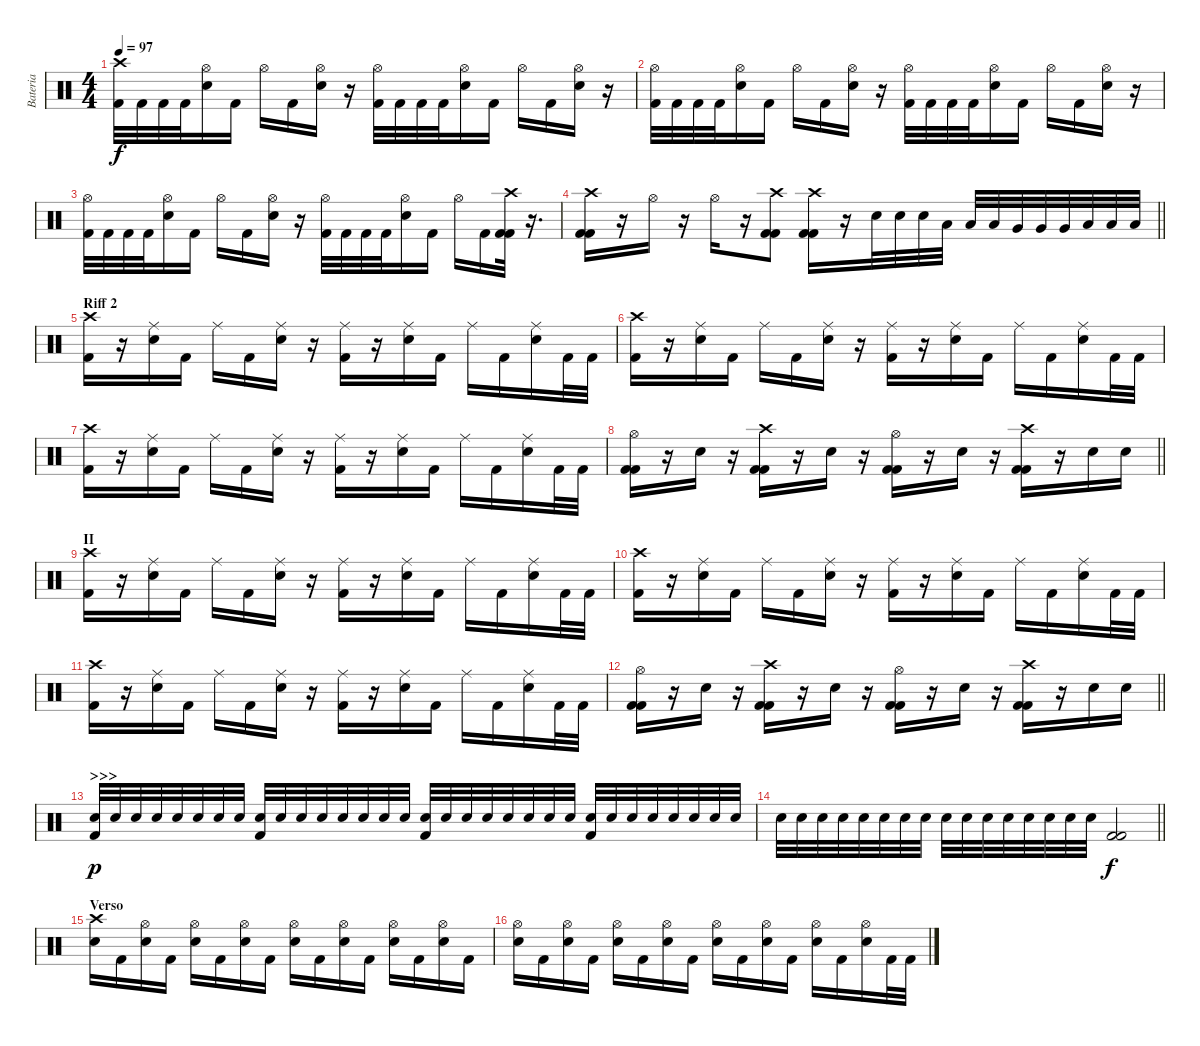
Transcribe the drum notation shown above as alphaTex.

\track ("Bateria" "Bateria") {instrument percussion}
\staff {score}
\articulation defaults
\ts (4 4)
\tempo 97
\clef neutral
\ks c
("Crash high (hit)" "Kick (hit) 2").32{dy f} "Kick (hit) 2".32 "Kick (hit) 2".32 "Kick (hit) 2".32 ("Hi-Hat (open)" "Electric Snare (hit)").16 "Kick (hit) 2".16 "Hi-Hat (open)".16 "Kick (hit) 2".16 ("Hi-Hat (open)" "Electric Snare (hit)").16 r.16 ("Hi-Hat (open)" "Kick (hit) 2").32 "Kick (hit) 2".32 "Kick (hit) 2".32 "Kick (hit) 2".32 ("Hi-Hat (open)" "Electric Snare (hit)").16 "Kick (hit) 2".16 "Hi-Hat (open)".16 "Kick (hit) 2".16 ("Hi-Hat (open)" "Electric Snare (hit)").16 r.16 |
("Hi-Hat (open)" "Kick (hit) 2").32 "Kick (hit) 2".32 "Kick (hit) 2".32 "Kick (hit) 2".32 ("Hi-Hat (open)" "Electric Snare (hit)").16 "Kick (hit) 2".16 "Hi-Hat (open)".16 "Kick (hit) 2".16 ("Hi-Hat (open)" "Electric Snare (hit)").16 r.16 ("Hi-Hat (open)" "Kick (hit) 2").32 "Kick (hit) 2".32 "Kick (hit) 2".32 "Kick (hit) 2".32 ("Hi-Hat (open)" "Electric Snare (hit)").16 "Kick (hit) 2".16 "Hi-Hat (open)".16 "Kick (hit) 2".16 ("Hi-Hat (open)" "Electric Snare (hit)").16 r.16 |
("Hi-Hat (open)" "Kick (hit) 2").32 "Kick (hit) 2".32 "Kick (hit) 2".32 "Kick (hit) 2".32 ("Hi-Hat (open)" "Electric Snare (hit)").16 "Kick (hit) 2".16 "Hi-Hat (open)".16 "Kick (hit) 2".16 ("Hi-Hat (open)" "Electric Snare (hit)").16 r.16 ("Hi-Hat (open)" "Kick (hit) 2").32 "Kick (hit) 2".32 "Kick (hit) 2".32 "Kick (hit) 2".32 ("Hi-Hat (open)" "Electric Snare (hit)").16 "Kick (hit) 2".16 "Hi-Hat (open)".16 "Kick (hit) 2".16 ("Crash high (hit)" "Kick (hit) 2" "Kick (hit) 2").32 r.16{d} |
\barLineRight lightlight
("Crash high (hit)" "Kick (hit) 2" "Kick (hit) 2").16 r.16 "Hi-Hat (open)".16 r.16 "Hi-Hat (open)".16 r.16 ("Crash high (hit)" "Kick (hit) 2" "Kick (hit) 2").8 ("Crash high (hit)" "Kick (hit) 2" "Kick (hit) 2").16 r.16 "Electric Snare (hit)".32 "Electric Snare (hit)".32 "Electric Snare (hit)".32 "Low Tom (hit)".32 "Low Tom (hit)".32 "Low Tom (hit)".32 "Very Low Tom (hit)".32 "Very Low Tom (hit)".32 "Very Low Tom (hit)".32 "Low Floor Tom (hit)".32 "Low Floor Tom (hit)".32 "Low Floor Tom (hit)".32 |
\section ("" "Riff 2")
("Crash high (hit)" "Kick (hit) 2").16 r.16 ("Ride (middle)" "Electric Snare (hit)").16 "Kick (hit) 2".16 "Ride (middle)".16 "Kick (hit) 2".16 ("Ride (middle)" "Electric Snare (hit)").16 r.16 ("Ride (middle)" "Kick (hit) 2").16 r.16 ("Ride (middle)" "Electric Snare (hit)").16 "Kick (hit) 2".16 "Ride (middle)".16 "Kick (hit) 2".16 ("Ride (middle)" "Electric Snare (hit)").16 "Kick (hit) 2".32 "Kick (hit) 2".32 |
("Crash high (hit)" "Kick (hit) 2").16 r.16 ("Ride (middle)" "Electric Snare (hit)").16 "Kick (hit) 2".16 "Ride (middle)".16 "Kick (hit) 2".16 ("Ride (middle)" "Electric Snare (hit)").16 r.16 ("Ride (middle)" "Kick (hit) 2").16 r.16 ("Ride (middle)" "Electric Snare (hit)").16 "Kick (hit) 2".16 "Ride (middle)".16 "Kick (hit) 2".16 ("Ride (middle)" "Electric Snare (hit)").16 "Kick (hit) 2".32 "Kick (hit) 2".32 |
("Crash high (hit)" "Kick (hit) 2").16 r.16 ("Ride (middle)" "Electric Snare (hit)").16 "Kick (hit) 2".16 "Ride (middle)".16 "Kick (hit) 2".16 ("Ride (middle)" "Electric Snare (hit)").16 r.16 ("Ride (middle)" "Kick (hit) 2").16 r.16 ("Ride (middle)" "Electric Snare (hit)").16 "Kick (hit) 2".16 "Ride (middle)".16 "Kick (hit) 2".16 ("Ride (middle)" "Electric Snare (hit)").16 "Kick (hit) 2".32 "Kick (hit) 2".32 |
\barLineRight lightlight
("Hi-Hat (open)" "Kick (hit) 2" "Kick (hit) 2").16 r.16 "Electric Snare (hit)".16 r.16 ("Crash high (hit)" "Kick (hit) 2" "Kick (hit) 2").16 r.16 "Electric Snare (hit)".16 r.16 ("Hi-Hat (open)" "Kick (hit) 2" "Kick (hit) 2").16 r.16 "Electric Snare (hit)".16 r.16 ("Crash high (hit)" "Kick (hit) 2" "Kick (hit) 2").16 r.16 "Electric Snare (hit)".16 "Electric Snare (hit)".16 |
\section ("" "II")
("Crash high (hit)" "Kick (hit) 2").16 r.16 ("Ride (middle)" "Electric Snare (hit)").16 "Kick (hit) 2".16 "Ride (middle)".16 "Kick (hit) 2".16 ("Ride (middle)" "Electric Snare (hit)").16 r.16 ("Ride (middle)" "Kick (hit) 2").16 r.16 ("Ride (middle)" "Electric Snare (hit)").16 "Kick (hit) 2".16 "Ride (middle)".16 "Kick (hit) 2".16 ("Ride (middle)" "Electric Snare (hit)").16 "Kick (hit) 2".32 "Kick (hit) 2".32 |
("Crash high (hit)" "Kick (hit) 2").16 r.16 ("Ride (middle)" "Electric Snare (hit)").16 "Kick (hit) 2".16 "Ride (middle)".16 "Kick (hit) 2".16 ("Ride (middle)" "Electric Snare (hit)").16 r.16 ("Ride (middle)" "Kick (hit) 2").16 r.16 ("Ride (middle)" "Electric Snare (hit)").16 "Kick (hit) 2".16 "Ride (middle)".16 "Kick (hit) 2".16 ("Ride (middle)" "Electric Snare (hit)").16 "Kick (hit) 2".32 "Kick (hit) 2".32 |
("Crash high (hit)" "Kick (hit) 2").16 r.16 ("Ride (middle)" "Electric Snare (hit)").16 "Kick (hit) 2".16 "Ride (middle)".16 "Kick (hit) 2".16 ("Ride (middle)" "Electric Snare (hit)").16 r.16 ("Ride (middle)" "Kick (hit) 2").16 r.16 ("Ride (middle)" "Electric Snare (hit)").16 "Kick (hit) 2".16 "Ride (middle)".16 "Kick (hit) 2".16 ("Ride (middle)" "Electric Snare (hit)").16 "Kick (hit) 2".32 "Kick (hit) 2".32 |
\barLineRight lightlight
("Hi-Hat (open)" "Kick (hit) 2" "Kick (hit) 2").16 r.16 "Electric Snare (hit)".16 r.16 ("Crash high (hit)" "Kick (hit) 2" "Kick (hit) 2").16 r.16 "Electric Snare (hit)".16 r.16 ("Hi-Hat (open)" "Kick (hit) 2" "Kick (hit) 2").16 r.16 "Electric Snare (hit)".16 r.16 ("Crash high (hit)" "Kick (hit) 2" "Kick (hit) 2").16 r.16 "Electric Snare (hit)".16 "Electric Snare (hit)".16 |
\section ("" ">>>")
("Electric Snare (hit)" "Kick (hit) 2").32{dy p} "Electric Snare (hit)".32 "Electric Snare (hit)".32 "Electric Snare (hit)".32 "Electric Snare (hit)".32 "Electric Snare (hit)".32 "Electric Snare (hit)".32 "Electric Snare (hit)".32 ("Electric Snare (hit)" "Kick (hit) 2").32 "Electric Snare (hit)".32 "Electric Snare (hit)".32 "Electric Snare (hit)".32 "Electric Snare (hit)".32 "Electric Snare (hit)".32 "Electric Snare (hit)".32 "Electric Snare (hit)".32 ("Electric Snare (hit)" "Kick (hit) 2").32 "Electric Snare (hit)".32 "Electric Snare (hit)".32 "Electric Snare (hit)".32 "Electric Snare (hit)".32 "Electric Snare (hit)".32 "Electric Snare (hit)".32 "Electric Snare (hit)".32 ("Electric Snare (hit)" "Kick (hit) 2").32 "Electric Snare (hit)".32 "Electric Snare (hit)".32 "Electric Snare (hit)".32 "Electric Snare (hit)".32 "Electric Snare (hit)".32 "Electric Snare (hit)".32 "Electric Snare (hit)".32 |
\barLineRight lightlight "Electric Snare (hit)".32 "Electric Snare (hit)".32 "Electric Snare (hit)".32 "Electric Snare (hit)".32 "Electric Snare (hit)".32 "Electric Snare (hit)".32 "Electric Snare (hit)".32 "Electric Snare (hit)".32 "Electric Snare (hit)".32 "Electric Snare (hit)".32 "Electric Snare (hit)".32 "Electric Snare (hit)".32 "Electric Snare (hit)".32 "Electric Snare (hit)".32 "Electric Snare (hit)".32 "Electric Snare (hit)".32
("Kick (hit) 2" "Kick (hit) 2").2{dy f} |
\section ("" "Verso")
("Crash high (hit)" "Electric Snare (hit)").16 "Kick (hit) 2".16 ("Hi-Hat (open)" "Electric Snare (hit)").16 "Kick (hit) 2".16 ("Hi-Hat (open)" "Electric Snare (hit)").16 "Kick (hit) 2".16 ("Hi-Hat (open)" "Electric Snare (hit)").16 "Kick (hit) 2".16 ("Hi-Hat (open)" "Electric Snare (hit)").16 "Kick (hit) 2".16 ("Hi-Hat (open)" "Electric Snare (hit)").16 "Kick (hit) 2".16 ("Hi-Hat (open)" "Electric Snare (hit)").16 "Kick (hit) 2".16 ("Hi-Hat (open)" "Electric Snare (hit)").16 "Kick (hit) 2".16 |
("Hi-Hat (open)" "Electric Snare (hit)").16 "Kick (hit) 2".16 ("Hi-Hat (open)" "Electric Snare (hit)").16 "Kick (hit) 2".16 ("Hi-Hat (open)" "Electric Snare (hit)").16 "Kick (hit) 2".16 ("Hi-Hat (open)" "Electric Snare (hit)").16 "Kick (hit) 2".16 ("Hi-Hat (open)" "Electric Snare (hit)").16 "Kick (hit) 2".16 ("Hi-Hat (open)" "Electric Snare (hit)").16 "Kick (hit) 2".16 ("Hi-Hat (open)" "Electric Snare (hit)").16 "Kick (hit) 2".16 ("Hi-Hat (open)" "Electric Snare (hit)").16 "Kick (hit) 2".32 "Kick (hit) 2".32
